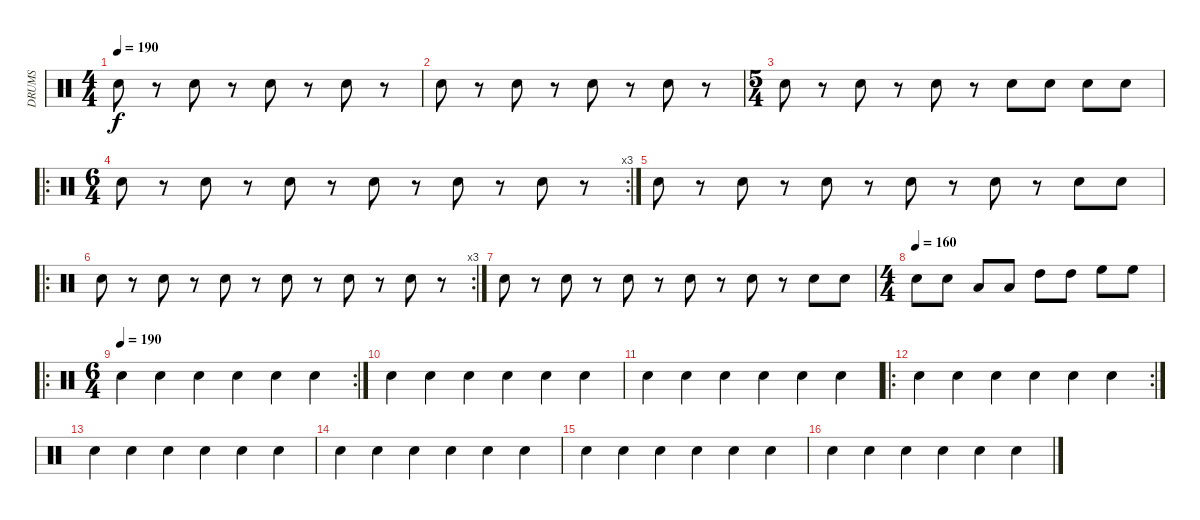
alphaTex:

\track ("DRUMS" "DRUMS") {instrument percussion}
\staff {score}
\articulation defaults
\ts (4 4)
\tempo 190
\clef neutral
\ks c "Electric Snare (hit)".8{dy f}
r.8 "Electric Snare (hit)".8 r.8 "Electric Snare (hit)".8 r.8 "Electric Snare (hit)".8 r.8 |
"Electric Snare (hit)".8 r.8 "Electric Snare (hit)".8 r.8 "Electric Snare (hit)".8 r.8 "Electric Snare (hit)".8 r.8 |
\ts (5 4)
"Electric Snare (hit)".8 r.8 "Electric Snare (hit)".8 r.8 "Electric Snare (hit)".8 r.8 "Electric Snare (hit)".8 "Electric Snare (hit)".8 "Electric Snare (hit)".8 "Electric Snare (hit)".8 |
\ro
\rc 3
\ts (6 4)
"Electric Snare (hit)".8 r.8 "Electric Snare (hit)".8 r.8 "Electric Snare (hit)".8 r.8 "Electric Snare (hit)".8 r.8 "Electric Snare (hit)".8 r.8 "Electric Snare (hit)".8 r.8 |
"Electric Snare (hit)".8 r.8 "Electric Snare (hit)".8 r.8 "Electric Snare (hit)".8 r.8 "Electric Snare (hit)".8 r.8 "Electric Snare (hit)".8 r.8 "Electric Snare (hit)".8 "Electric Snare (hit)".8 |
\ro
\rc 3 "Electric Snare (hit)".8
r.8 "Electric Snare (hit)".8 r.8 "Electric Snare (hit)".8 r.8 "Electric Snare (hit)".8 r.8 "Electric Snare (hit)".8 r.8 "Electric Snare (hit)".8 r.8 |
"Electric Snare (hit)".8 r.8 "Electric Snare (hit)".8 r.8 "Electric Snare (hit)".8 r.8 "Electric Snare (hit)".8 r.8 "Electric Snare (hit)".8 r.8 "Electric Snare (hit)".8 "Electric Snare (hit)".8 |
\ts (4 4)
\tempo (160)
"Electric Snare (hit)".8 "Electric Snare (hit)".8 "Low Tom (hit)".8 "Low Tom (hit)".8 "High Tom (hit)".8 "High Tom (hit)".8 "High Floor Tom (hit)".8 "High Floor Tom (hit)".8 |
\ro
\rc 2
\ts (6 4)
\tempo (190)
"Electric Snare (hit)".4 "Electric Snare (hit)".4 "Electric Snare (hit)".4 "Electric Snare (hit)".4 "Electric Snare (hit)".4 "Electric Snare (hit)".4 |
"Electric Snare (hit)".4 "Electric Snare (hit)".4 "Electric Snare (hit)".4 "Electric Snare (hit)".4 "Electric Snare (hit)".4 "Electric Snare (hit)".4 |
"Electric Snare (hit)".4 "Electric Snare (hit)".4 "Electric Snare (hit)".4 "Electric Snare (hit)".4 "Electric Snare (hit)".4 "Electric Snare (hit)".4 |
\ro
\rc 2 "Electric Snare (hit)".4 "Electric Snare (hit)".4 "Electric Snare (hit)".4 "Electric Snare (hit)".4 "Electric Snare (hit)".4 "Electric Snare (hit)".4
|
"Electric Snare (hit)".4 "Electric Snare (hit)".4 "Electric Snare (hit)".4 "Electric Snare (hit)".4 "Electric Snare (hit)".4 "Electric Snare (hit)".4 |
"Electric Snare (hit)".4 "Electric Snare (hit)".4 "Electric Snare (hit)".4 "Electric Snare (hit)".4 "Electric Snare (hit)".4 "Electric Snare (hit)".4 |
"Electric Snare (hit)".4 "Electric Snare (hit)".4 "Electric Snare (hit)".4 "Electric Snare (hit)".4 "Electric Snare (hit)".4 "Electric Snare (hit)".4 |
"Electric Snare (hit)".4 "Electric Snare (hit)".4 "Electric Snare (hit)".4 "Electric Snare (hit)".4 "Electric Snare (hit)".4 "Electric Snare (hit)".4
